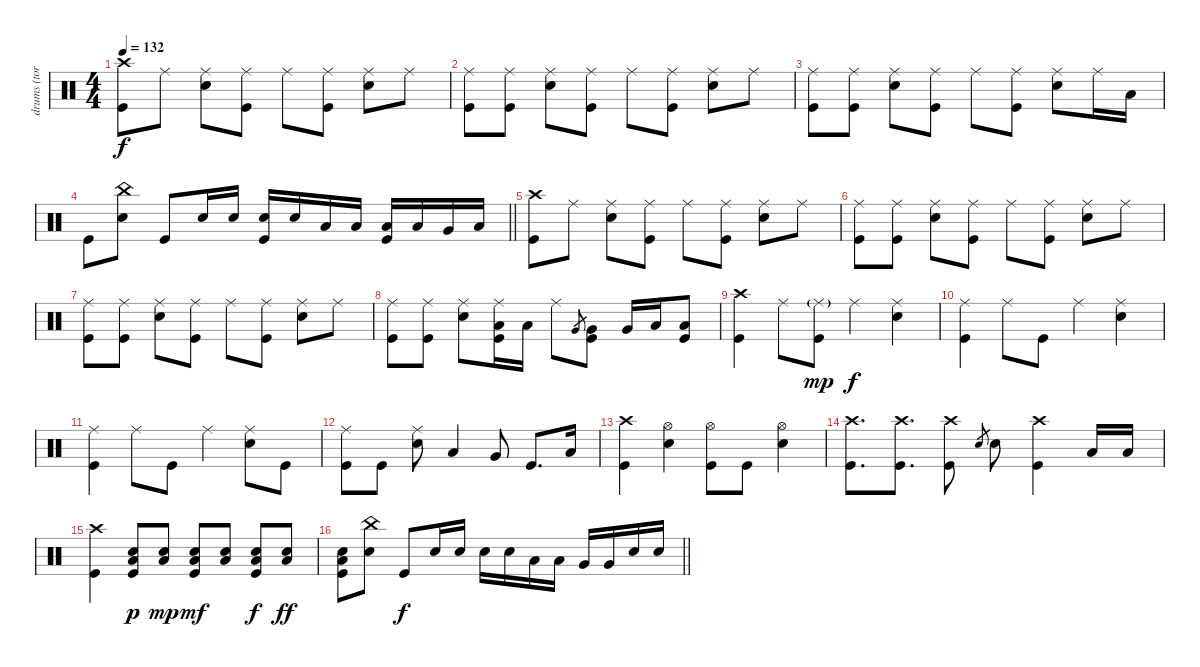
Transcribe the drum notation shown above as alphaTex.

\track ("drums (tora)" "drums (tor") {instrument percussion}
\staff {score}
\articulation defaults
\ts (4 4)
\tempo 132
\clef neutral
\ks c
("Crash high (hit)" "Kick (hit)").8{dy f} "Ride (middle)".8 ("Ride (middle)" "Snare (hit) 2").8 ("Ride (middle)" "Kick (hit)").8 "Ride (middle)".8 ("Ride (middle)" "Kick (hit)").8 ("Ride (middle)" "Snare (hit) 2").8 "Ride (middle)".8 |
("Ride (middle)" "Kick (hit)").8 ("Ride (middle)" "Kick (hit)").8 ("Ride (middle)" "Snare (hit) 2").8 ("Ride (middle)" "Kick (hit)").8 "Ride (middle)".8 ("Ride (middle)" "Kick (hit)").8 ("Ride (middle)" "Snare (hit) 2").8 "Ride (middle)".8 |
("Ride (middle)" "Kick (hit)").8 ("Ride (middle)" "Kick (hit)").8 ("Ride (middle)" "Snare (hit) 2").8 ("Ride (middle)" "Kick (hit)").8 "Ride (middle)".8 ("Ride (middle)" "Kick (hit)").8 ("Ride (middle)" "Snare (hit) 2").8 "Ride (middle)".16 "Low Tom (hit)".16 |
\barLineRight lightlight "Kick (hit)".8
("China (hit)" "Snare (hit) 2").8 "Kick (hit)".8 "Snare (hit) 2".16 "Snare (hit) 2".16 ("Snare (hit) 2" "Kick (hit)").16 "Snare (hit) 2".16 "Low Tom (hit)".16 "Low Tom (hit)".16 ("Low Tom (hit)" "Kick (hit)").16 "Low Tom (hit)".16 "Very Low Tom (hit)".16 "Low Floor Tom (hit)".16 |
("Crash high (hit)" "Kick (hit)").8 "Ride (middle)".8 ("Ride (middle)" "Snare (hit) 2").8 ("Ride (middle)" "Kick (hit)").8 "Ride (middle)".8 ("Ride (middle)" "Kick (hit)").8 ("Ride (middle)" "Snare (hit) 2").8 "Ride (middle)".8 |
("Ride (middle)" "Kick (hit)").8 ("Ride (middle)" "Kick (hit)").8 ("Ride (middle)" "Snare (hit) 2").8 ("Ride (middle)" "Kick (hit)").8 "Ride (middle)".8 ("Ride (middle)" "Kick (hit)").8 ("Ride (middle)" "Snare (hit) 2").8 "Ride (middle)".8 |
("Ride (middle)" "Kick (hit)").8 ("Ride (middle)" "Kick (hit)").8 ("Ride (middle)" "Snare (hit) 2").8 ("Ride (middle)" "Kick (hit)").8 "Ride (middle)".8 ("Ride (middle)" "Kick (hit)").8 ("Ride (middle)" "Snare (hit) 2").8 "Ride (middle)".8 |
("Ride (middle)" "Kick (hit)").8 ("Ride (middle)" "Kick (hit)").8 ("Ride (middle)" "Snare (hit) 2").8 ("Ride (middle)" "Low Tom (hit)" "Kick (hit)").16 "Low Tom (hit)".16 "Ride (middle)".8 "Very Low Tom (hit)".8{gr} ("Very Low Tom (hit)" "Kick (hit)").8 "Very Low Tom (hit)".16 "Low Floor Tom (hit)".16 ("Low Floor Tom (hit)" "Kick (hit)").8 |
("Crash high (hit)" "Kick (hit)").4 "Ride (middle)".8 ("Ride (middle)"{g} "Kick (hit)").8{dy mp} "Ride (middle)".4{dy f} ("Ride (middle)" "Snare (hit) 2").4 |
("Ride (middle)" "Kick (hit)").4 "Ride (middle)".8 "Kick (hit)".8 "Ride (middle)".4 ("Ride (middle)" "Snare (hit) 2").4 |
("Ride (middle)" "Kick (hit)").4 "Ride (middle)".8 "Kick (hit)".8 "Ride (middle)".4 ("Ride (middle)" "Snare (hit) 2").8 "Kick (hit)".8 |
("Ride (middle)" "Kick (hit)").8 "Kick (hit)".8 ("Ride (middle)" "Snare (hit) 2").8 "Low Tom (hit)".4 "Very Low Tom (hit)".8 "Kick (hit)".8{d} "Low Floor Tom (hit)".16 |
("Crash high (hit)" "Kick (hit)").4 ("Hi-Hat (open)" "Snare (hit) 2").4 ("Hi-Hat (open)" "Kick (hit)").8 "Kick (hit)".8 ("Hi-Hat (open)" "Snare (hit) 2").4 |
("Crash high (hit)" "Kick (hit)").8{d} ("Crash high (hit)" "Kick (hit)").8{d} ("Crash high (hit)" "Kick (hit)").8 "Snare (hit) 2".8{gr} "Snare (hit) 2".8 ("Crash high (hit)" "Kick (hit)").4 "Low Tom (hit)".16 "Low Tom (hit)".16 |
("Crash high (hit)" "Kick (hit)").4 ("Snare (hit) 2" "Low Floor Tom (hit)" "Kick (hit)").8{dy p} ("Snare (hit) 2" "Low Floor Tom (hit)").8{dy mp} ("Snare (hit) 2" "Low Floor Tom (hit)" "Kick (hit)").8{dy mf} ("Snare (hit) 2" "Low Floor Tom (hit)").8 ("Snare (hit) 2" "Low Floor Tom (hit)" "Kick (hit)").8{dy f} ("Snare (hit) 2" "Low Floor Tom (hit)").8{dy ff} |
\barLineRight lightlight
("Snare (hit) 2" "Low Floor Tom (hit)" "Kick (hit)").8 ("China (hit)" "Snare (hit) 2").8 "Kick (hit)".8{dy f} "Snare (hit) 2".16 "Snare (hit) 2".16 "Snare (hit) 2".16 "Snare (hit) 2".16 "Low Tom (hit)".16 "Low Tom (hit)".16 "Very Low Tom (hit)".16 "Very Low Tom (hit)".16 "Snare (hit) 2".16 "Snare (hit) 2".16
